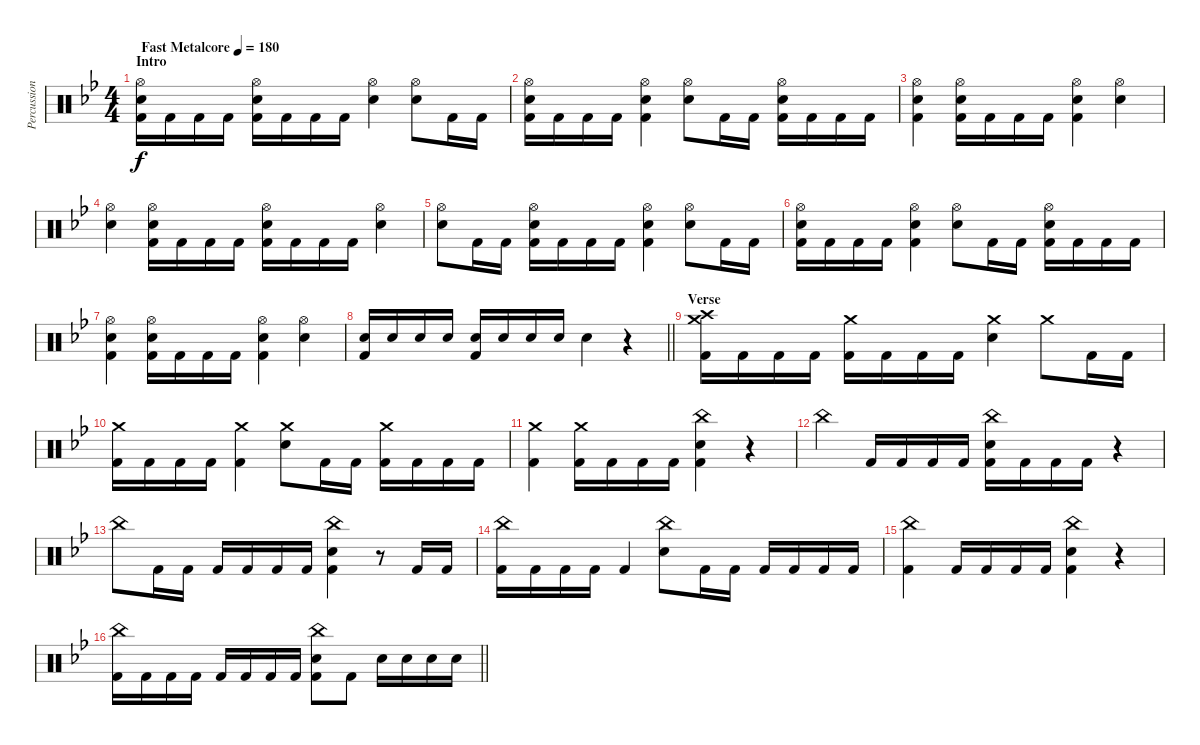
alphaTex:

\track ("Percussion" "Percussion") {instrument percussion}
\staff {score}
\articulation defaults
\ts (4 4)
\section ("" "Intro")
\tempo (180 "Fast Metalcore")
\clef neutral
\ks bb
("Hi-Hat (open)" "Electric Snare (hit)" "Kick (hit) 2").16{dy f} "Kick (hit) 2".16 "Kick (hit) 2".16 "Kick (hit) 2".16 ("Hi-Hat (open)" "Electric Snare (hit)" "Kick (hit) 2").16 "Kick (hit) 2".16 "Kick (hit) 2".16 "Kick (hit) 2".16 ("Hi-Hat (open)" "Electric Snare (hit)").4 ("Hi-Hat (open)" "Electric Snare (hit)").8 "Kick (hit) 2".16 "Kick (hit) 2".16 |
("Hi-Hat (open)" "Electric Snare (hit)" "Kick (hit) 2").16 "Kick (hit) 2".16 "Kick (hit) 2".16 "Kick (hit) 2".16 ("Hi-Hat (open)" "Electric Snare (hit)" "Kick (hit) 2").4 ("Hi-Hat (open)" "Electric Snare (hit)").8 "Kick (hit) 2".16 "Kick (hit) 2".16 ("Hi-Hat (open)" "Electric Snare (hit)" "Kick (hit) 2").16 "Kick (hit) 2".16 "Kick (hit) 2".16 "Kick (hit) 2".16 |
("Hi-Hat (open)" "Electric Snare (hit)" "Kick (hit) 2").4 ("Hi-Hat (open)" "Electric Snare (hit)" "Kick (hit) 2").16 "Kick (hit) 2".16 "Kick (hit) 2".16 "Kick (hit) 2".16 ("Hi-Hat (open)" "Electric Snare (hit)" "Kick (hit) 2").4 ("Hi-Hat (open)" "Electric Snare (hit)").4 |
("Hi-Hat (open)" "Electric Snare (hit)").4 ("Hi-Hat (open)" "Electric Snare (hit)" "Kick (hit) 2").16 "Kick (hit) 2".16 "Kick (hit) 2".16 "Kick (hit) 2".16 ("Hi-Hat (open)" "Electric Snare (hit)" "Kick (hit) 2").16 "Kick (hit) 2".16 "Kick (hit) 2".16 "Kick (hit) 2".16 ("Hi-Hat (open)" "Electric Snare (hit)").4 |
("Hi-Hat (open)" "Electric Snare (hit)").8 "Kick (hit) 2".16 "Kick (hit) 2".16 ("Hi-Hat (open)" "Electric Snare (hit)" "Kick (hit) 2").16 "Kick (hit) 2".16 "Kick (hit) 2".16 "Kick (hit) 2".16 ("Hi-Hat (open)" "Electric Snare (hit)" "Kick (hit) 2").4 ("Hi-Hat (open)" "Electric Snare (hit)").8 "Kick (hit) 2".16 "Kick (hit) 2".16 |
("Hi-Hat (open)" "Electric Snare (hit)" "Kick (hit) 2").16 "Kick (hit) 2".16 "Kick (hit) 2".16 "Kick (hit) 2".16 ("Hi-Hat (open)" "Electric Snare (hit)" "Kick (hit) 2").4 ("Hi-Hat (open)" "Electric Snare (hit)").8 "Kick (hit) 2".16 "Kick (hit) 2".16 ("Hi-Hat (open)" "Electric Snare (hit)" "Kick (hit) 2").16 "Kick (hit) 2".16 "Kick (hit) 2".16 "Kick (hit) 2".16 |
("Hi-Hat (open)" "Electric Snare (hit)" "Kick (hit) 2").4 ("Hi-Hat (open)" "Electric Snare (hit)" "Kick (hit) 2").16 "Kick (hit) 2".16 "Kick (hit) 2".16 "Kick (hit) 2".16 ("Hi-Hat (open)" "Electric Snare (hit)" "Kick (hit) 2").4 ("Hi-Hat (open)" "Electric Snare (hit)").4 |
\barLineRight lightlight
("Electric Snare (hit)" "Kick (hit) 2").16 "Electric Snare (hit)".16 "Electric Snare (hit)".16 "Electric Snare (hit)".16 ("Electric Snare (hit)" "Kick (hit) 2").16 "Electric Snare (hit)".16 "Electric Snare (hit)".16 "Electric Snare (hit)".16 "Electric Snare (hit)".4 r.4 |
\section ("" "Verse")
("Crash medium (hit)" "Crash high (hit)" "Kick (hit) 2").16 "Kick (hit) 2".16 "Kick (hit) 2".16 "Kick (hit) 2".16 ("Crash medium (hit)" "Kick (hit) 2").16 "Kick (hit) 2".16 "Kick (hit) 2".16 "Kick (hit) 2".16 ("Crash medium (hit)" "Electric Snare (hit)").4 "Crash medium (hit)".8 "Kick (hit) 2".16 "Kick (hit) 2".16 |
("Crash medium (hit)" "Kick (hit) 2").16 "Kick (hit) 2".16 "Kick (hit) 2".16 "Kick (hit) 2".16 ("Crash medium (hit)" "Kick (hit) 2").4 ("Crash medium (hit)" "Electric Snare (hit)").8 "Kick (hit) 2".16 "Kick (hit) 2".16 ("Crash medium (hit)" "Kick (hit) 2").16 "Kick (hit) 2".16 "Kick (hit) 2".16 "Kick (hit) 2".16 |
("Crash medium (hit)" "Kick (hit) 2").4 ("Crash medium (hit)" "Kick (hit) 2").16 "Kick (hit) 2".16 "Kick (hit) 2".16 "Kick (hit) 2".16 ("China (hit)" "Electric Snare (hit)" "Kick (hit) 2").4 r.4 |
"China (hit)".4 "Kick (hit) 2".16 "Kick (hit) 2".16 "Kick (hit) 2".16 "Kick (hit) 2".16 ("China (hit)" "Electric Snare (hit)" "Kick (hit) 2").16 "Kick (hit) 2".16 "Kick (hit) 2".16 "Kick (hit) 2".16 r.4 |
"China (hit)".8 "Kick (hit) 2".16 "Kick (hit) 2".16 "Kick (hit) 2".16 "Kick (hit) 2".16 "Kick (hit) 2".16 "Kick (hit) 2".16 ("China (hit)" "Electric Snare (hit)" "Kick (hit) 2").4 r.8 "Kick (hit) 2".16 "Kick (hit) 2".16 |
("China (hit)" "Kick (hit) 2").16 "Kick (hit) 2".16 "Kick (hit) 2".16 "Kick (hit) 2".16 "Kick (hit) 2".4 ("China (hit)" "Electric Snare (hit)").8 "Kick (hit) 2".16 "Kick (hit) 2".16 "Kick (hit) 2".16 "Kick (hit) 2".16 "Kick (hit) 2".16 "Kick (hit) 2".16 |
("China (hit)" "Kick (hit) 2").4 "Kick (hit) 2".16 "Kick (hit) 2".16 "Kick (hit) 2".16 "Kick (hit) 2".16 ("China (hit)" "Electric Snare (hit)" "Kick (hit) 2").4 r.4 |
\barLineRight lightlight
("China (hit)" "Kick (hit) 2").16 "Kick (hit) 2".16 "Kick (hit) 2".16 "Kick (hit) 2".16 "Kick (hit) 2".16 "Kick (hit) 2".16 "Kick (hit) 2".16 "Kick (hit) 2".16 ("China (hit)" "Electric Snare (hit)" "Kick (hit) 2").8 "Kick (hit) 2".8 "Electric Snare (hit)".16 "Electric Snare (hit)".16 "Electric Snare (hit)".16 "Electric Snare (hit)".16
